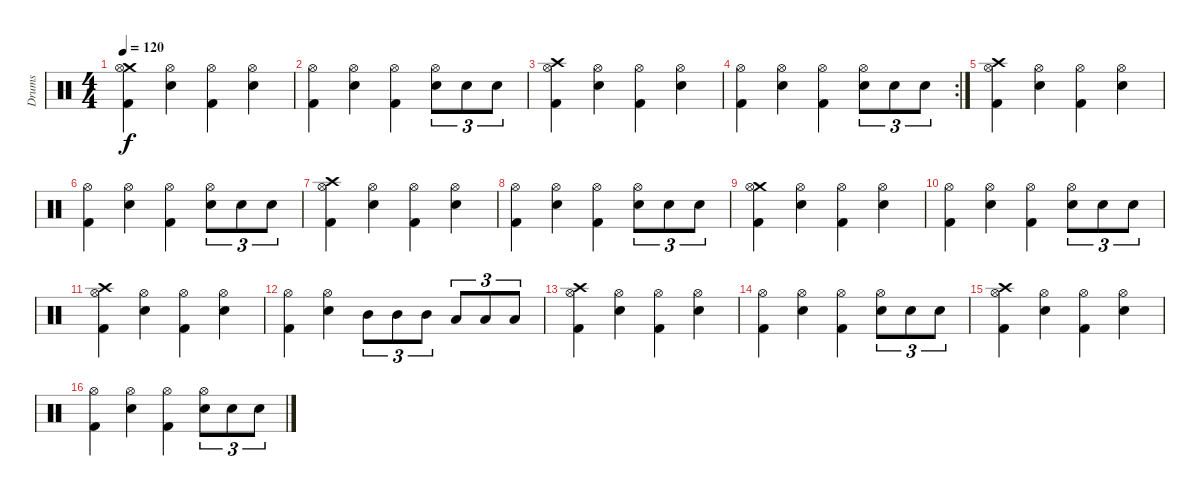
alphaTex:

\track ("Drums" "Drums") {instrument percussion}
\staff {score}
\articulation defaults
\ts (4 4)
\tempo 120
\clef neutral
\ks c
("Crash medium (hit)" "Hi-Hat (open)" "Kick (hit) 2").4{dy f} ("Hi-Hat (open)" "Snare (hit) 2").4 ("Hi-Hat (open)" "Kick (hit) 2").4 ("Hi-Hat (open)" "Snare (hit) 2").4 |
("Hi-Hat (open)" "Kick (hit) 2").4 ("Hi-Hat (open)" "Snare (hit) 2").4 ("Hi-Hat (open)" "Kick (hit) 2").4 ("Hi-Hat (open)" "Snare (hit) 2").8{tu (3 2)} "Snare (hit) 2".8{tu (3 2)} "Snare (hit) 2".8{tu (3 2)} |
("Crash high (hit)" "Hi-Hat (open)" "Kick (hit) 2").4 ("Hi-Hat (open)" "Snare (hit) 2").4 ("Hi-Hat (open)" "Kick (hit) 2").4 ("Hi-Hat (open)" "Snare (hit) 2").4 |
\rc 2
("Hi-Hat (open)" "Kick (hit) 2").4 ("Hi-Hat (open)" "Snare (hit) 2").4 ("Hi-Hat (open)" "Kick (hit) 2").4 ("Hi-Hat (open)" "Snare (hit) 2").8{tu (3 2)} "Snare (hit) 2".8{tu (3 2)} "Snare (hit) 2".8{tu (3 2)} |
("Crash high (hit)" "Hi-Hat (open)" "Kick (hit) 2").4 ("Hi-Hat (open)" "Snare (hit) 2").4 ("Hi-Hat (open)" "Kick (hit) 2").4 ("Hi-Hat (open)" "Snare (hit) 2").4 |
("Hi-Hat (open)" "Kick (hit) 2").4 ("Hi-Hat (open)" "Snare (hit) 2").4 ("Hi-Hat (open)" "Kick (hit) 2").4 ("Hi-Hat (open)" "Snare (hit) 2").8{tu (3 2)} "Snare (hit) 2".8{tu (3 2)} "Snare (hit) 2".8{tu (3 2)} |
("Crash high (hit)" "Hi-Hat (open)" "Kick (hit) 2").4 ("Hi-Hat (open)" "Snare (hit) 2").4 ("Hi-Hat (open)" "Kick (hit) 2").4 ("Hi-Hat (open)" "Snare (hit) 2").4 |
("Hi-Hat (open)" "Kick (hit) 2").4 ("Hi-Hat (open)" "Snare (hit) 2").4 ("Hi-Hat (open)" "Kick (hit) 2").4 ("Hi-Hat (open)" "Snare (hit) 2").8{tu (3 2)} "Snare (hit) 2".8{tu (3 2)} "Snare (hit) 2".8{tu (3 2)} |
("Crash medium (hit)" "Hi-Hat (open)" "Kick (hit) 2").4 ("Hi-Hat (open)" "Snare (hit) 2").4 ("Hi-Hat (open)" "Kick (hit) 2").4 ("Hi-Hat (open)" "Snare (hit) 2").4 |
("Hi-Hat (open)" "Kick (hit) 2").4 ("Hi-Hat (open)" "Snare (hit) 2").4 ("Hi-Hat (open)" "Kick (hit) 2").4 ("Hi-Hat (open)" "Snare (hit) 2").8{tu (3 2)} "Snare (hit) 2".8{tu (3 2)} "Snare (hit) 2".8{tu (3 2)} |
("Crash high (hit)" "Hi-Hat (open)" "Kick (hit) 2").4 ("Hi-Hat (open)" "Snare (hit) 2").4 ("Hi-Hat (open)" "Kick (hit) 2").4 ("Hi-Hat (open)" "Snare (hit) 2").4 |
("Hi-Hat (open)" "Kick (hit) 2").4 ("Hi-Hat (open)" "Snare (hit) 2").4 "Mid Tom (hit)".8{tu (3 2)} "Mid Tom (hit)".8{tu (3 2)} "Mid Tom (hit)".8{tu (3 2)} "Low Tom (hit)".8{tu (3 2)} "Low Tom (hit)".8{tu (3 2)} "Low Tom (hit)".8{tu (3 2)} |
("Crash high (hit)" "Hi-Hat (open)" "Kick (hit) 2").4 ("Hi-Hat (open)" "Snare (hit) 2").4 ("Hi-Hat (open)" "Kick (hit) 2").4 ("Hi-Hat (open)" "Snare (hit) 2").4 |
("Hi-Hat (open)" "Kick (hit) 2").4 ("Hi-Hat (open)" "Snare (hit) 2").4 ("Hi-Hat (open)" "Kick (hit) 2").4 ("Hi-Hat (open)" "Snare (hit) 2").8{tu (3 2)} "Snare (hit) 2".8{tu (3 2)} "Snare (hit) 2".8{tu (3 2)} |
("Crash high (hit)" "Hi-Hat (open)" "Kick (hit) 2").4 ("Hi-Hat (open)" "Snare (hit) 2").4 ("Hi-Hat (open)" "Kick (hit) 2").4 ("Hi-Hat (open)" "Snare (hit) 2").4 |
("Hi-Hat (open)" "Kick (hit) 2").4 ("Hi-Hat (open)" "Snare (hit) 2").4 ("Hi-Hat (open)" "Kick (hit) 2").4 ("Hi-Hat (open)" "Snare (hit) 2").8{tu (3 2)} "Snare (hit) 2".8{tu (3 2)} "Snare (hit) 2".8{tu (3 2)}
